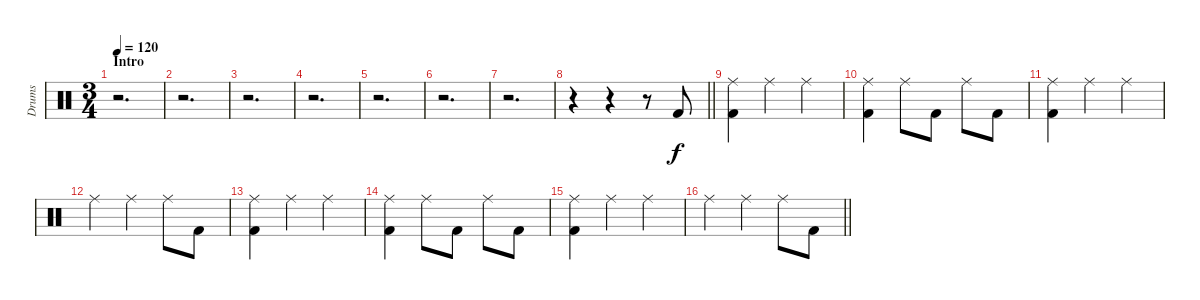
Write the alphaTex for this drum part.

\track ("Drums" "Drums") {instrument percussion}
\staff {score}
\articulation defaults
\ts (3 4)
\section ("" "Intro")
\tempo 120
\clef neutral
\ks c
r.2{d dy f} |
r.2{d} |
r.2{d} |
r.2{d} |
r.2{d} |
r.2{d} |
r.2{d} |
\barLineRight lightlight
r.4 r.4 r.8 "Kick (hit) 2".8 |
\section ("" "")
("Ride (middle)" "Kick (hit) 2").4 "Ride (middle)".4 "Ride (middle)".4 |
("Ride (middle)" "Kick (hit) 2").4 "Ride (middle)".8 "Kick (hit) 2".8 "Ride (middle)".8 "Kick (hit) 2".8 |
("Ride (middle)" "Kick (hit) 2").4 "Ride (middle)".4 "Ride (middle)".4 |
"Ride (middle)".4 "Ride (middle)".4 "Ride (middle)".8 "Kick (hit) 2".8 |
("Ride (middle)" "Kick (hit) 2").4 "Ride (middle)".4 "Ride (middle)".4 |
("Ride (middle)" "Kick (hit) 2").4 "Ride (middle)".8 "Kick (hit) 2".8 "Ride (middle)".8 "Kick (hit) 2".8 |
("Ride (middle)" "Kick (hit) 2").4 "Ride (middle)".4 "Ride (middle)".4 |
\barLineRight lightlight "Ride (middle)".4 "Ride (middle)".4 "Ride (middle)".8 "Kick (hit) 2".8
